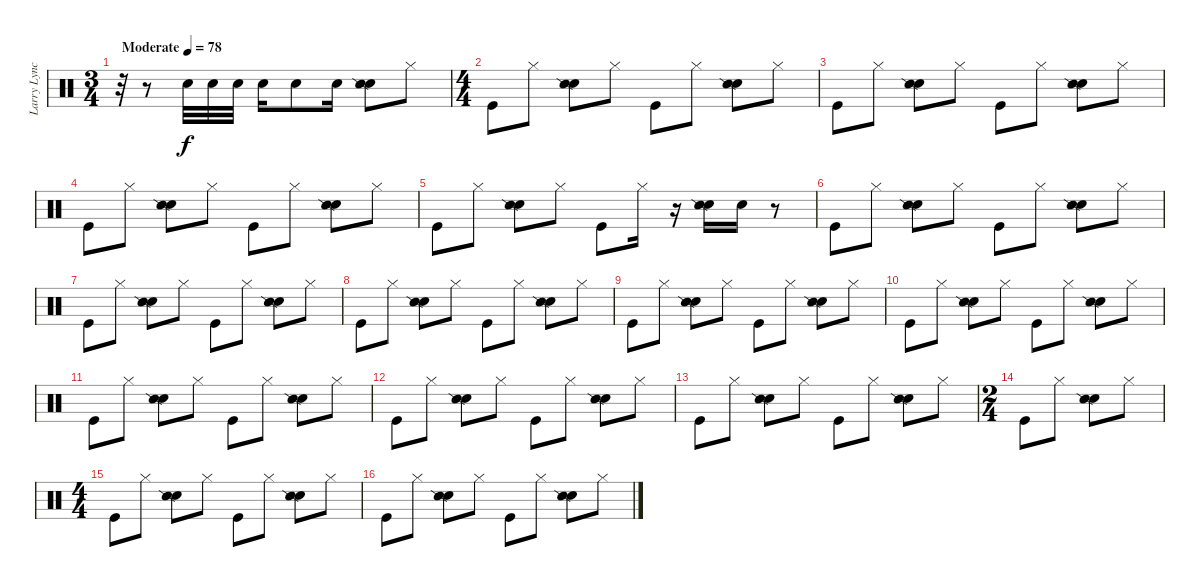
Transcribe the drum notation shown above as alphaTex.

\track ("Larry Lynch" "Larry Lync") {instrument percussion}
\staff {score}
\articulation defaults
\ts (3 4)
\tempo (78 "Moderate")
\clef neutral
\ks c
r.32{dy f} r.8 "Snare (hit) 2".32 "Snare (hit) 2".32 "Snare (hit) 2".32 "Snare (hit) 2".16 "Snare (hit) 2".8 "Snare (hit) 2".16 ("Electric Snare (hit)" "Snare (side stick) 2").8 "Hi-Hat (closed)".8 |
\ts (4 4)
"Kick (hit)".8 "Hi-Hat (closed)".8 ("Electric Snare (hit)" "Snare (side stick) 2").8 "Hi-Hat (closed)".8 "Kick (hit)".8 "Hi-Hat (closed)".8 ("Electric Snare (hit)" "Snare (side stick) 2").8 "Hi-Hat (closed)".8 |
"Kick (hit)".8 "Hi-Hat (closed)".8 ("Electric Snare (hit)" "Snare (side stick) 2").8 "Hi-Hat (closed)".8 "Kick (hit)".8 "Hi-Hat (closed)".8 ("Electric Snare (hit)" "Snare (side stick) 2").8 "Hi-Hat (closed)".8 |
"Kick (hit)".8 "Hi-Hat (closed)".8 ("Electric Snare (hit)" "Snare (side stick) 2").8 "Hi-Hat (closed)".8 "Kick (hit)".8 "Hi-Hat (closed)".8 ("Electric Snare (hit)" "Snare (side stick) 2").8 "Hi-Hat (closed)".8 |
"Kick (hit)".8 "Hi-Hat (closed)".8 ("Electric Snare (hit)" "Snare (side stick) 2").8 "Hi-Hat (closed)".8 "Kick (hit)".8 "Hi-Hat (closed)".16 r.16 ("Electric Snare (hit)" "Snare (side stick) 2").16 "Snare (hit) 2".16 r.8 |
"Kick (hit)".8 "Hi-Hat (closed)".8 ("Electric Snare (hit)" "Snare (side stick) 2").8 "Hi-Hat (closed)".8 "Kick (hit)".8 "Hi-Hat (closed)".8 ("Electric Snare (hit)" "Snare (side stick) 2").8 "Hi-Hat (closed)".8 |
"Kick (hit)".8 "Hi-Hat (closed)".8 ("Electric Snare (hit)" "Snare (side stick) 2").8 "Hi-Hat (closed)".8 "Kick (hit)".8 "Hi-Hat (closed)".8 ("Electric Snare (hit)" "Snare (side stick) 2").8 "Hi-Hat (closed)".8 |
"Kick (hit)".8 "Hi-Hat (closed)".8 ("Electric Snare (hit)" "Snare (side stick) 2").8 "Hi-Hat (closed)".8 "Kick (hit)".8 "Hi-Hat (closed)".8 ("Electric Snare (hit)" "Snare (side stick) 2").8 "Hi-Hat (closed)".8 |
"Kick (hit)".8 "Hi-Hat (closed)".8 ("Electric Snare (hit)" "Snare (side stick) 2").8 "Hi-Hat (closed)".8 "Kick (hit)".8 "Hi-Hat (closed)".8 ("Electric Snare (hit)" "Snare (side stick) 2").8 "Hi-Hat (closed)".8 |
"Kick (hit)".8 "Hi-Hat (closed)".8 ("Electric Snare (hit)" "Snare (side stick) 2").8 "Hi-Hat (closed)".8 "Kick (hit)".8 "Hi-Hat (closed)".8 ("Electric Snare (hit)" "Snare (side stick) 2").8 "Hi-Hat (closed)".8 |
"Kick (hit)".8 "Hi-Hat (closed)".8 ("Electric Snare (hit)" "Snare (side stick) 2").8 "Hi-Hat (closed)".8 "Kick (hit)".8 "Hi-Hat (closed)".8 ("Electric Snare (hit)" "Snare (side stick) 2").8 "Hi-Hat (closed)".8 |
"Kick (hit)".8 "Hi-Hat (closed)".8 ("Electric Snare (hit)" "Snare (side stick) 2").8 "Hi-Hat (closed)".8 "Kick (hit)".8 "Hi-Hat (closed)".8 ("Electric Snare (hit)" "Snare (side stick) 2").8 "Hi-Hat (closed)".8 |
"Kick (hit)".8 "Hi-Hat (closed)".8 ("Electric Snare (hit)" "Snare (side stick) 2").8 "Hi-Hat (closed)".8 "Kick (hit)".8 "Hi-Hat (closed)".8 ("Electric Snare (hit)" "Snare (side stick) 2").8 "Hi-Hat (closed)".8 |
\ts (2 4)
"Kick (hit)".8 "Hi-Hat (closed)".8 ("Electric Snare (hit)" "Snare (side stick) 2").8 "Hi-Hat (closed)".8 |
\ts (4 4)
"Kick (hit)".8 "Hi-Hat (closed)".8 ("Electric Snare (hit)" "Snare (side stick) 2").8 "Hi-Hat (closed)".8 "Kick (hit)".8 "Hi-Hat (closed)".8 ("Electric Snare (hit)" "Snare (side stick) 2").8 "Hi-Hat (closed)".8 |
"Kick (hit)".8 "Hi-Hat (closed)".8 ("Electric Snare (hit)" "Snare (side stick) 2").8 "Hi-Hat (closed)".8 "Kick (hit)".8 "Hi-Hat (closed)".8 ("Electric Snare (hit)" "Snare (side stick) 2").8 "Hi-Hat (closed)".8
